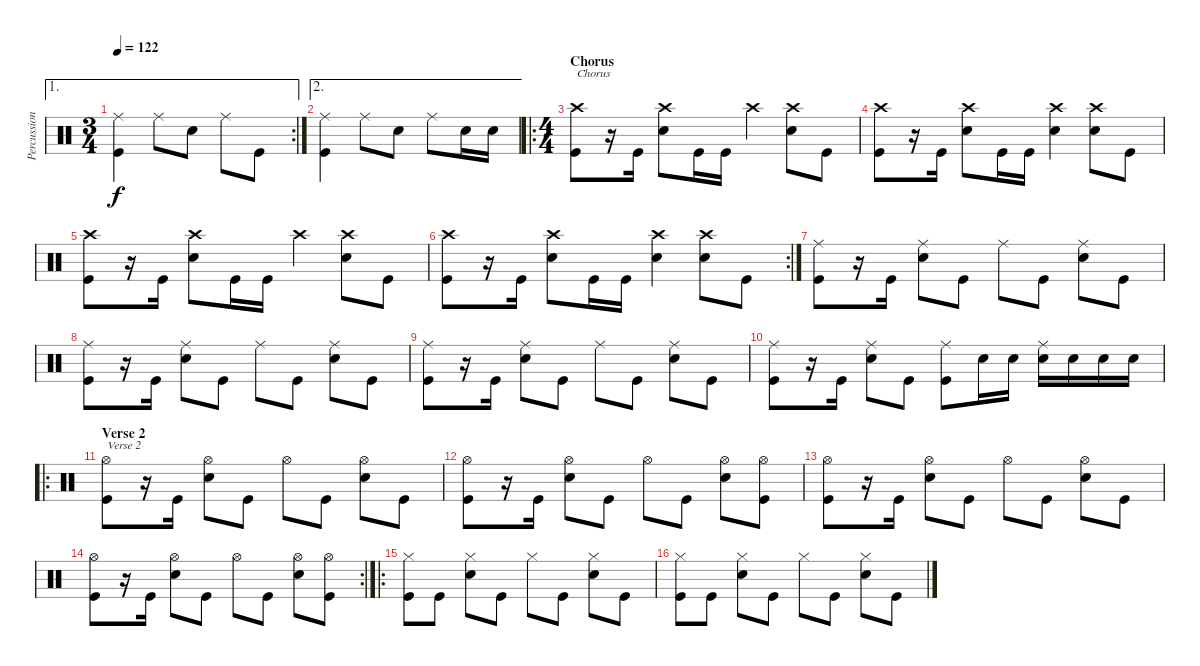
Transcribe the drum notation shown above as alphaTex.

\track ("Percussion" "Percussion") {instrument percussion}
\staff {score}
\articulation defaults
\ae 1
\rc 2
\ts (3 4)
\tempo 122
\clef neutral
\ks c
("Ride (middle)" "Kick (hit)").4{dy f} "Ride (middle)".8 "Snare (hit) 2".8 "Ride (middle)".8 "Kick (hit)".8 |
\ae 2
("Ride (middle)" "Kick (hit)").4 "Ride (middle)".8 "Snare (hit) 2".8 "Ride (middle)".8 "Snare (hit) 2".16 "Snare (hit) 2".16 |
\ro
\ts (4 4)
\section ("" "Chorus")
("Crash high (hit)" "Kick (hit)").8{txt "Chorus"} r.16 "Kick (hit)".16 ("Crash high (hit)" "Snare (hit) 2").8 "Kick (hit)".16 "Kick (hit)".16 "Crash high (hit)".4 ("Crash high (hit)" "Snare (hit) 2").8 "Kick (hit)".8 |
("Crash high (hit)" "Kick (hit)").8 r.16 "Kick (hit)".16 ("Crash high (hit)" "Snare (hit) 2").8 "Kick (hit)".16 "Kick (hit)".16 ("Crash high (hit)" "Snare (hit) 2").4 ("Crash high (hit)" "Snare (hit) 2").8 "Kick (hit)".8 |
("Crash high (hit)" "Kick (hit)").8 r.16 "Kick (hit)".16 ("Crash high (hit)" "Snare (hit) 2").8 "Kick (hit)".16 "Kick (hit)".16 "Crash high (hit)".4 ("Crash high (hit)" "Snare (hit) 2").8 "Kick (hit)".8 |
\rc 2
("Crash high (hit)" "Kick (hit)").8 r.16 "Kick (hit)".16 ("Crash high (hit)" "Snare (hit) 2").8 "Kick (hit)".16 "Kick (hit)".16 ("Crash high (hit)" "Snare (hit) 2").4 ("Crash high (hit)" "Snare (hit) 2").8 "Kick (hit)".8 |
("Ride (middle)" "Kick (hit)").8 r.16 "Kick (hit)".16 ("Ride (middle)" "Snare (hit) 2").8 "Kick (hit)".8 "Ride (middle)".8 "Kick (hit)".8 ("Ride (middle)" "Snare (hit) 2").8 "Kick (hit)".8 |
("Ride (middle)" "Kick (hit)").8 r.16 "Kick (hit)".16 ("Ride (middle)" "Snare (hit) 2").8 "Kick (hit)".8 "Ride (middle)".8 "Kick (hit)".8 ("Ride (middle)" "Snare (hit) 2").8 "Kick (hit)".8 |
("Ride (middle)" "Kick (hit)").8 r.16 "Kick (hit)".16 ("Ride (middle)" "Snare (hit) 2").8 "Kick (hit)".8 "Ride (middle)".8 "Kick (hit)".8 ("Ride (middle)" "Snare (hit) 2").8 "Kick (hit)".8 |
("Ride (middle)" "Kick (hit)").8 r.16 "Kick (hit)".16 ("Ride (middle)" "Snare (hit) 2").8 "Kick (hit)".8 ("Ride (middle)" "Kick (hit)").8 "Snare (hit) 2".16 "Snare (hit) 2".16 ("Ride (middle)" "Snare (hit) 2").16 "Snare (hit) 2".16 "Snare (hit) 2".16 "Snare (hit) 2".16 |
\ro
\section ("" "Verse 2")
("Hi-Hat (open)" "Kick (hit)").8{txt "Verse 2"} r.16 "Kick (hit)".16 ("Hi-Hat (open)" "Snare (hit) 2").8 "Kick (hit)".8 "Hi-Hat (open)".8 "Kick (hit)".8 ("Hi-Hat (open)" "Snare (hit) 2").8 "Kick (hit)".8 |
("Hi-Hat (open)" "Kick (hit)").8 r.16 "Kick (hit)".16 ("Hi-Hat (open)" "Snare (hit) 2").8 "Kick (hit)".8 "Hi-Hat (open)".8 "Kick (hit)".8 ("Hi-Hat (open)" "Snare (hit) 2").8 ("Hi-Hat (open)" "Kick (hit)").8 |
("Hi-Hat (open)" "Kick (hit)").8 r.16 "Kick (hit)".16 ("Hi-Hat (open)" "Snare (hit) 2").8 "Kick (hit)".8 "Hi-Hat (open)".8 "Kick (hit)".8 ("Hi-Hat (open)" "Snare (hit) 2").8 "Kick (hit)".8 |
\rc 2
("Hi-Hat (open)" "Kick (hit)").8 r.16 "Kick (hit)".16 ("Hi-Hat (open)" "Snare (hit) 2").8 "Kick (hit)".8 "Hi-Hat (open)".8 "Kick (hit)".8 ("Hi-Hat (open)" "Snare (hit) 2").8 ("Hi-Hat (open)" "Kick (hit)").8 |
\ro
("Hi-Hat (closed)" "Kick (hit)").8 "Kick (hit)".8 ("Hi-Hat (closed)" "Snare (hit) 2").8 "Kick (hit)".8 "Hi-Hat (closed)".8 "Kick (hit)".8 ("Hi-Hat (closed)" "Snare (hit) 2").8 "Kick (hit)".8 |
("Hi-Hat (closed)" "Kick (hit)").8 "Kick (hit)".8 ("Hi-Hat (closed)" "Snare (hit) 2").8 "Kick (hit)".8 "Hi-Hat (closed)".8 "Kick (hit)".8 ("Hi-Hat (closed)" "Snare (hit) 2").8 "Kick (hit)".8
